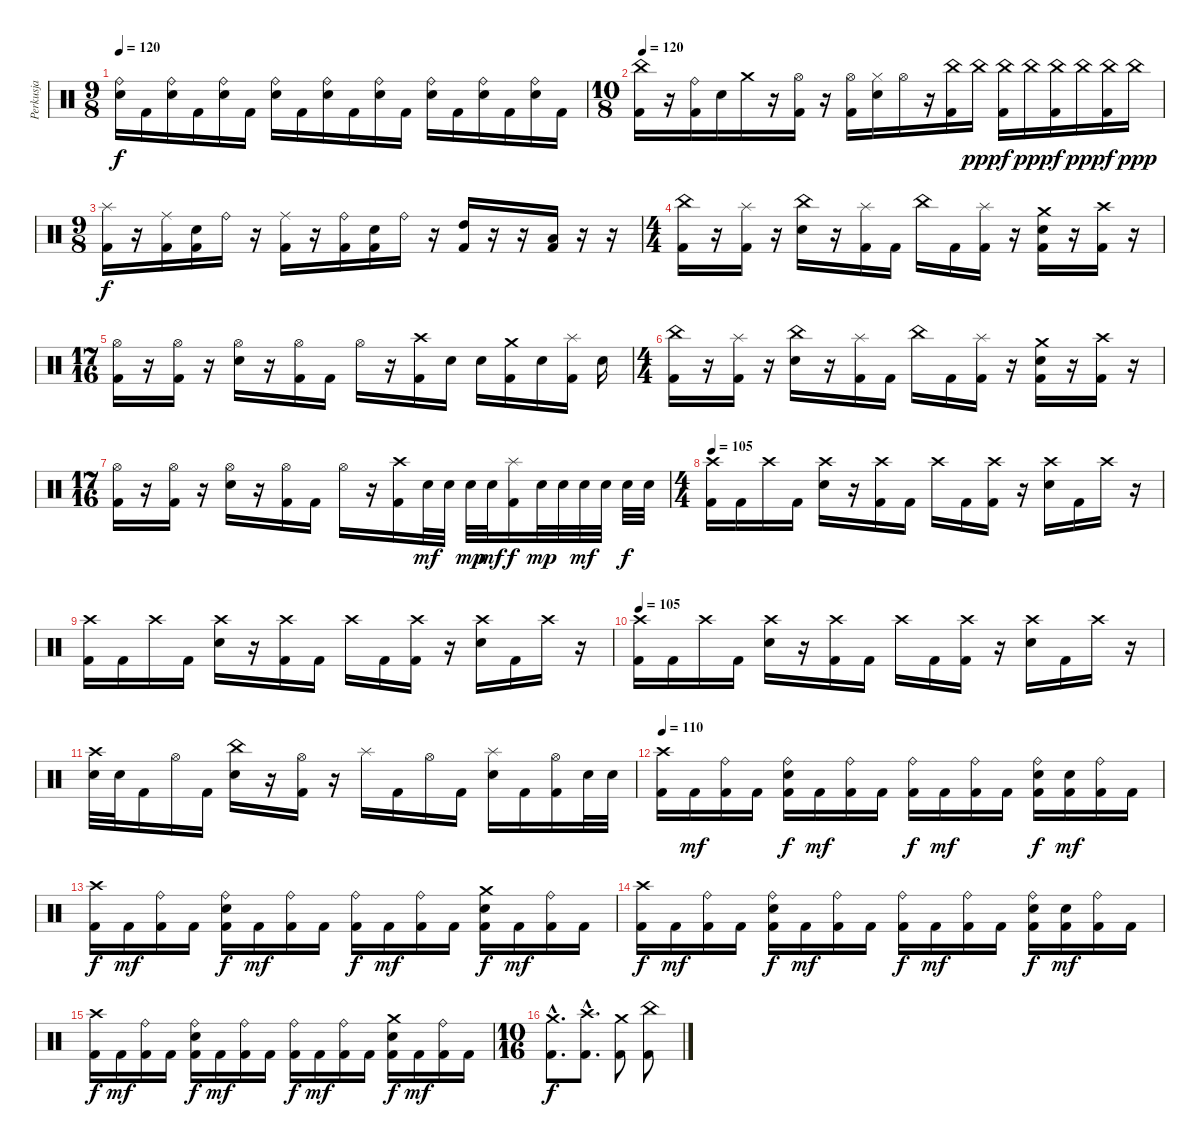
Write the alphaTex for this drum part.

\track ("Perkusja" "Perkusja") {instrument percussion}
\staff {score}
\articulation defaults
\ts (9 8)
\tempo 120
\clef neutral
\ks c
("Ride (bell)" "Electric Snare (hit)").16{dy f} "Kick (hit) 2".16 ("Ride (bell)" "Electric Snare (hit)").16 "Kick (hit) 2".16 ("Ride (bell)" "Electric Snare (hit)").16 "Kick (hit) 2".16 ("Ride (bell)" "Electric Snare (hit)").16 "Kick (hit) 2".16 ("Ride (bell)" "Electric Snare (hit)").16 "Kick (hit) 2".16 ("Ride (bell)" "Electric Snare (hit)").16 "Kick (hit) 2".16 ("Ride (bell)" "Electric Snare (hit)").16 "Kick (hit) 2".16 ("Ride (bell)" "Electric Snare (hit)").16 "Kick (hit) 2".16 ("Ride (bell)" "Electric Snare (hit)").16 "Kick (hit) 2".16 |
\ts (10 8)
\tempo 120
("China (hit)" "Kick (hit) 2").16 r.16 ("Ride (bell)" "Kick (hit) 2").16 "Electric Snare (hit)".16 "Crash medium (hit)".16 r.16 ("Hi-Hat (open)" "Kick (hit) 2").16 r.16 ("Hi-Hat (open)" "Kick (hit) 2").16 ("Hi-Hat (closed)" "Electric Snare (hit)").16 "Hi-Hat (open)".16 r.16 ("China (hit)" "Kick (hit) 2").16 "China (hit)".16{dy ppp} ("China (hit)" "Kick (hit) 2").16{dy f} "China (hit)".16{dy ppp} ("China (hit)" "Kick (hit) 2").16{dy f} "China (hit)".16{dy ppp} ("China (hit)" "Kick (hit) 2").16{dy f} "China (hit)".16{dy ppp} |
\ts (9 8)
("Splash (hit)" "Kick (hit) 2").16{dy f} r.16 ("Ride (middle)" "Kick (hit) 2").16 ("Electric Snare (hit)" "Kick (hit) 2").16 "Ride (bell)".16 r.16 ("Ride (middle)" "Kick (hit) 2").16 r.16 ("Ride (bell)" "Kick (hit) 2").16 ("Electric Snare (hit)" "Kick (hit) 2").16 "Ride (bell)".16 r.16 ("High Tom (hit)" "Kick (hit) 2").16 r.16 r.16 ("Low Tom (hit)" "Kick (hit) 2").16 r.16 r.16 |
\ts (4 4)
("China (hit)" "Kick (hit) 2").16 r.16 ("Splash (hit)" "Kick (hit) 2").16 r.16 ("China (hit)" "Electric Snare (hit)").16 r.16 ("Splash (hit)" "Kick (hit) 2").16 "Kick (hit) 2".16 "China (hit)".16 "Kick (hit) 2".16 ("Splash (hit)" "Kick (hit) 2").16 r.16 ("Crash medium (hit)" "Electric Snare (hit)" "Kick (hit) 2").16 r.16 ("Crash high (hit)" "Kick (hit) 2").16 r.16 |
\ts (17 16)
("Hi-Hat (open)" "Kick (hit) 2").16 r.16 ("Hi-Hat (open)" "Kick (hit) 2").16 r.16 ("Hi-Hat (open)" "Electric Snare (hit)").16 r.16 ("Hi-Hat (open)" "Kick (hit) 2").16 "Kick (hit) 2".16 "Hi-Hat (open)".16 r.16 ("Crash high (hit)" "Kick (hit) 2").16 "Electric Snare (hit)".16 "Electric Snare (hit)".16 ("Crash medium (hit)" "Kick (hit) 2").16 "Electric Snare (hit)".16 ("Splash (hit)" "Kick (hit) 2").16 "Electric Snare (hit)".16 |
\ts (4 4)
("China (hit)" "Kick (hit) 2").16 r.16 ("Splash (hit)" "Kick (hit) 2").16 r.16 ("China (hit)" "Electric Snare (hit)").16 r.16 ("Splash (hit)" "Kick (hit) 2").16 "Kick (hit) 2".16 "China (hit)".16 "Kick (hit) 2".16 ("Splash (hit)" "Kick (hit) 2").16 r.16 ("Crash medium (hit)" "Electric Snare (hit)" "Kick (hit) 2").16 r.16 ("Crash high (hit)" "Kick (hit) 2").16 r.16 |
\ts (17 16)
("Hi-Hat (open)" "Kick (hit) 2").16 r.16 ("Hi-Hat (open)" "Kick (hit) 2").16 r.16 ("Hi-Hat (open)" "Electric Snare (hit)").16 r.16 ("Hi-Hat (open)" "Kick (hit) 2").16 "Kick (hit) 2".16 "Hi-Hat (open)".16 r.16 ("Crash high (hit)" "Kick (hit) 2").16 "Electric Snare (hit)".32{dy mf} "Electric Snare (hit)".32 "Electric Snare (hit)".32{dy mp} "Electric Snare (hit)".32{dy mf} ("Splash (hit)" "Kick (hit) 2").16{dy f} "Electric Snare (hit)".32{dy mp} "Electric Snare (hit)".32 "Electric Snare (hit)".32{dy mf} "Electric Snare (hit)".32 "Electric Snare (hit)".32{dy f} "Electric Snare (hit)".32 |
\ts (4 4)
\tempo 105
("Crash high (hit)" "Kick (hit) 2").16 "Kick (hit) 2".16 "Crash high (hit)".16 "Kick (hit) 2".16 ("Crash high (hit)" "Electric Snare (hit)").16 r.16 ("Crash high (hit)" "Kick (hit) 2").16 "Kick (hit) 2".16 "Crash high (hit)".16 "Kick (hit) 2".16 ("Crash high (hit)" "Kick (hit) 2").16 r.16 ("Crash high (hit)" "Electric Snare (hit)").16 "Kick (hit) 2".16 "Crash high (hit)".16 r.16 |
("Crash high (hit)" "Kick (hit) 2").16 "Kick (hit) 2".16 "Crash high (hit)".16 "Kick (hit) 2".16 ("Crash high (hit)" "Electric Snare (hit)").16 r.16 ("Crash high (hit)" "Kick (hit) 2").16 "Kick (hit) 2".16 "Crash high (hit)".16 "Kick (hit) 2".16 ("Crash high (hit)" "Kick (hit) 2").16 r.16 ("Crash high (hit)" "Electric Snare (hit)").16 "Kick (hit) 2".16 "Crash high (hit)".16 r.16 |
\tempo 105
("Crash high (hit)" "Kick (hit) 2").16 "Kick (hit) 2".16 "Crash high (hit)".16 "Kick (hit) 2".16 ("Crash high (hit)" "Electric Snare (hit)").16 r.16 ("Crash high (hit)" "Kick (hit) 2").16 "Kick (hit) 2".16 "Crash high (hit)".16 "Kick (hit) 2".16 ("Crash high (hit)" "Kick (hit) 2").16 r.16 ("Crash high (hit)" "Electric Snare (hit)").16 "Kick (hit) 2".16 "Crash high (hit)".16 r.16 |
("Crash high (hit)" "Electric Snare (hit)").32 "Electric Snare (hit)".32 "Kick (hit) 2".16 "Hi-Hat (open)".16 "Kick (hit) 2".16 ("China (hit)" "Electric Snare (hit)").16 r.16 ("Hi-Hat (open)" "Kick (hit) 2").16 r.16 "Splash (hit)".16 "Kick (hit) 2".16 "Hi-Hat (open)".16 "Kick (hit) 2".16 ("Splash (hit)" "Electric Snare (hit)").16 "Kick (hit) 2".16 ("Hi-Hat (open)" "Kick (hit) 2").16 "Electric Snare (hit)".32 "Electric Snare (hit)".32 |
\tempo 110
("Crash high (hit)" "Kick (hit) 2").16 "Kick (hit) 2".16{dy mf} ("Ride (bell)" "Kick (hit) 2").16 "Kick (hit) 2".16 ("Ride (bell)" "Electric Snare (hit)" "Kick (hit) 2").16{dy f} "Kick (hit) 2".16{dy mf} ("Ride (bell)" "Kick (hit) 2").16 "Kick (hit) 2".16 ("Ride (bell)" "Kick (hit) 2").16{dy f} "Kick (hit) 2".16{dy mf} ("Ride (bell)" "Kick (hit) 2").16 "Kick (hit) 2".16 ("Ride (bell)" "Electric Snare (hit)" "Kick (hit) 2").16{dy f} ("Electric Snare (hit)" "Kick (hit) 2").16{dy mf} ("Ride (bell)" "Kick (hit) 2").16 "Kick (hit) 2".16 |
("Crash high (hit)" "Kick (hit) 2").16{dy f} "Kick (hit) 2".16{dy mf} ("Ride (bell)" "Kick (hit) 2").16 "Kick (hit) 2".16 ("Ride (bell)" "Electric Snare (hit)" "Kick (hit) 2").16{dy f} "Kick (hit) 2".16{dy mf} ("Ride (bell)" "Kick (hit) 2").16 "Kick (hit) 2".16 ("Ride (bell)" "Kick (hit) 2").16{dy f} "Kick (hit) 2".16{dy mf} ("Ride (bell)" "Kick (hit) 2").16 "Kick (hit) 2".16 ("Crash medium (hit)" "Electric Snare (hit)" "Kick (hit) 2").16{dy f} "Kick (hit) 2".16{dy mf} ("Ride (bell)" "Kick (hit) 2").16 "Kick (hit) 2".16 |
("Crash high (hit)" "Kick (hit) 2").16{dy f} "Kick (hit) 2".16{dy mf} ("Ride (bell)" "Kick (hit) 2").16 "Kick (hit) 2".16 ("Ride (bell)" "Electric Snare (hit)" "Kick (hit) 2").16{dy f} "Kick (hit) 2".16{dy mf} ("Ride (bell)" "Kick (hit) 2").16 "Kick (hit) 2".16 ("Ride (bell)" "Kick (hit) 2").16{dy f} "Kick (hit) 2".16{dy mf} ("Ride (bell)" "Kick (hit) 2").16 "Kick (hit) 2".16 ("Ride (bell)" "Electric Snare (hit)" "Kick (hit) 2").16{dy f} ("Electric Snare (hit)" "Kick (hit) 2").16{dy mf} ("Ride (bell)" "Kick (hit) 2").16 "Kick (hit) 2".16 |
("Crash high (hit)" "Kick (hit) 2").16{dy f} "Kick (hit) 2".16{dy mf} ("Ride (bell)" "Kick (hit) 2").16 "Kick (hit) 2".16 ("Ride (bell)" "Electric Snare (hit)" "Kick (hit) 2").16{dy f} "Kick (hit) 2".16{dy mf} ("Ride (bell)" "Kick (hit) 2").16 "Kick (hit) 2".16 ("Ride (bell)" "Kick (hit) 2").16{dy f} "Kick (hit) 2".16{dy mf} ("Ride (bell)" "Kick (hit) 2").16 "Kick (hit) 2".16 ("Crash medium (hit)" "Electric Snare (hit)" "Kick (hit) 2").16{dy f} "Kick (hit) 2".16{dy mf} ("Ride (bell)" "Kick (hit) 2").16 "Kick (hit) 2".16 |
\ts (10 16)
("Crash medium (hit)"{hac} "Kick (hit) 2"{hac}).8{d dy f} ("Crash high (hit)"{hac} "Kick (hit) 2"{hac}).8{d} ("Crash medium (hit)" "Kick (hit) 2").8 ("China (hit)" "Kick (hit) 2").8
